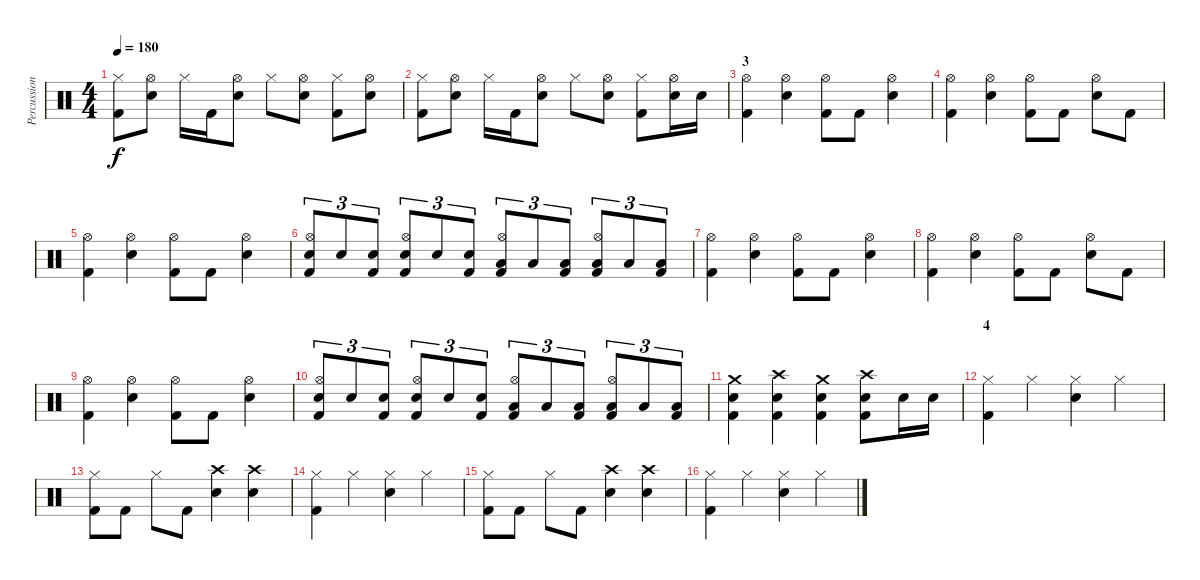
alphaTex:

\track ("Percussions" "Percussion") {instrument percussion}
\staff {score}
\articulation defaults
\ts (4 4)
\tempo 180
\clef neutral
\ks c
("Hi-Hat (closed)" "Kick (hit) 2").8{dy f} ("Hi-Hat (open)" "Snare (hit) 2").8 "Hi-Hat (closed)".16 "Kick (hit) 2".16 ("Hi-Hat (open)" "Snare (hit) 2").8 "Hi-Hat (closed)".8 ("Hi-Hat (open)" "Snare (hit) 2").8 ("Hi-Hat (closed)" "Kick (hit) 2").8 ("Hi-Hat (open)" "Snare (hit) 2").8 |
("Hi-Hat (closed)" "Kick (hit) 2").8 ("Hi-Hat (open)" "Snare (hit) 2").8 "Hi-Hat (closed)".16 "Kick (hit) 2".16 ("Hi-Hat (open)" "Snare (hit) 2").8 "Hi-Hat (closed)".8 ("Hi-Hat (open)" "Snare (hit) 2").8 ("Hi-Hat (closed)" "Kick (hit) 2").8 ("Hi-Hat (open)" "Snare (hit) 2").16 "Snare (hit) 2".16 |
\section ("" "3")
("Hi-Hat (open)" "Kick (hit) 2").4 ("Hi-Hat (open)" "Snare (hit) 2").4 ("Hi-Hat (open)" "Kick (hit) 2").8 "Kick (hit) 2".8 ("Hi-Hat (open)" "Snare (hit) 2").4 |
("Hi-Hat (open)" "Kick (hit) 2").4 ("Hi-Hat (open)" "Snare (hit) 2").4 ("Hi-Hat (open)" "Kick (hit) 2").8 "Kick (hit) 2".8 ("Hi-Hat (open)" "Snare (hit) 2").8 "Kick (hit) 2".8 |
("Hi-Hat (open)" "Kick (hit) 2").4 ("Hi-Hat (open)" "Snare (hit) 2").4 ("Hi-Hat (open)" "Kick (hit) 2").8 "Kick (hit) 2".8 ("Hi-Hat (open)" "Snare (hit) 2").4 |
("Hi-Hat (open)" "Snare (hit) 2" "Kick (hit) 2").8{tu (3 2)} "Snare (hit) 2".8{tu (3 2)} ("Snare (hit) 2" "Kick (hit) 2").8{tu (3 2)} ("Hi-Hat (open)" "Snare (hit) 2" "Kick (hit) 2").8{tu (3 2)} "Snare (hit) 2".8{tu (3 2)} ("Snare (hit) 2" "Kick (hit) 2").8{tu (3 2)} ("Hi-Hat (open)" "Low Tom (hit)" "Kick (hit) 2").8{tu (3 2)} "Low Tom (hit)".8{tu (3 2)} ("Low Tom (hit)" "Kick (hit) 2").8{tu (3 2)} ("Hi-Hat (open)" "Low Floor Tom (hit)" "Kick (hit) 2").8{tu (3 2)} "Low Floor Tom (hit)".8{tu (3 2)} ("Low Floor Tom (hit)" "Kick (hit) 2").8{tu (3 2)} |
("Hi-Hat (open)" "Kick (hit) 2").4 ("Hi-Hat (open)" "Snare (hit) 2").4 ("Hi-Hat (open)" "Kick (hit) 2").8 "Kick (hit) 2".8 ("Hi-Hat (open)" "Snare (hit) 2").4 |
("Hi-Hat (open)" "Kick (hit) 2").4 ("Hi-Hat (open)" "Snare (hit) 2").4 ("Hi-Hat (open)" "Kick (hit) 2").8 "Kick (hit) 2".8 ("Hi-Hat (open)" "Snare (hit) 2").8 "Kick (hit) 2".8 |
("Hi-Hat (open)" "Kick (hit) 2").4 ("Hi-Hat (open)" "Snare (hit) 2").4 ("Hi-Hat (open)" "Kick (hit) 2").8 "Kick (hit) 2".8 ("Hi-Hat (open)" "Snare (hit) 2").4 |
("Hi-Hat (open)" "Snare (hit) 2" "Kick (hit) 2").8{tu (3 2)} "Snare (hit) 2".8{tu (3 2)} ("Snare (hit) 2" "Kick (hit) 2").8{tu (3 2)} ("Hi-Hat (open)" "Snare (hit) 2" "Kick (hit) 2").8{tu (3 2)} "Snare (hit) 2".8{tu (3 2)} ("Snare (hit) 2" "Kick (hit) 2").8{tu (3 2)} ("Hi-Hat (open)" "Low Tom (hit)" "Kick (hit) 2").8{tu (3 2)} "Low Tom (hit)".8{tu (3 2)} ("Low Tom (hit)" "Kick (hit) 2").8{tu (3 2)} ("Hi-Hat (open)" "Low Floor Tom (hit)" "Kick (hit) 2").8{tu (3 2)} "Low Floor Tom (hit)".8{tu (3 2)} ("Low Floor Tom (hit)" "Kick (hit) 2").8{tu (3 2)} |
("Crash medium (hit)" "Snare (hit) 2" "Kick (hit) 2").4 ("Crash high (hit)" "Snare (hit) 2" "Kick (hit) 2").4 ("Crash medium (hit)" "Snare (hit) 2" "Kick (hit) 2").4 ("Crash high (hit)" "Snare (hit) 2" "Kick (hit) 2").8 "Snare (hit) 2".16 "Snare (hit) 2".16 |
\section ("" "4")
("Hi-Hat (closed)" "Kick (hit) 2").4 "Hi-Hat (closed)".4 ("Hi-Hat (closed)" "Snare (hit) 2").4 "Hi-Hat (closed)".4 |
("Hi-Hat (closed)" "Kick (hit) 2").8 "Kick (hit) 2".8 "Hi-Hat (closed)".8 "Kick (hit) 2".8 ("Crash high (hit)" "Snare (hit) 2").4 ("Crash high (hit)" "Snare (hit) 2").4 |
("Hi-Hat (closed)" "Kick (hit) 2").4 "Hi-Hat (closed)".4 ("Hi-Hat (closed)" "Snare (hit) 2").4 "Hi-Hat (closed)".4 |
("Hi-Hat (closed)" "Kick (hit) 2").8 "Kick (hit) 2".8 "Hi-Hat (closed)".8 "Kick (hit) 2".8 ("Crash high (hit)" "Snare (hit) 2").4 ("Crash high (hit)" "Snare (hit) 2").4 |
("Hi-Hat (closed)" "Kick (hit) 2").4 "Hi-Hat (closed)".4 ("Hi-Hat (closed)" "Snare (hit) 2").4 "Hi-Hat (closed)".4
